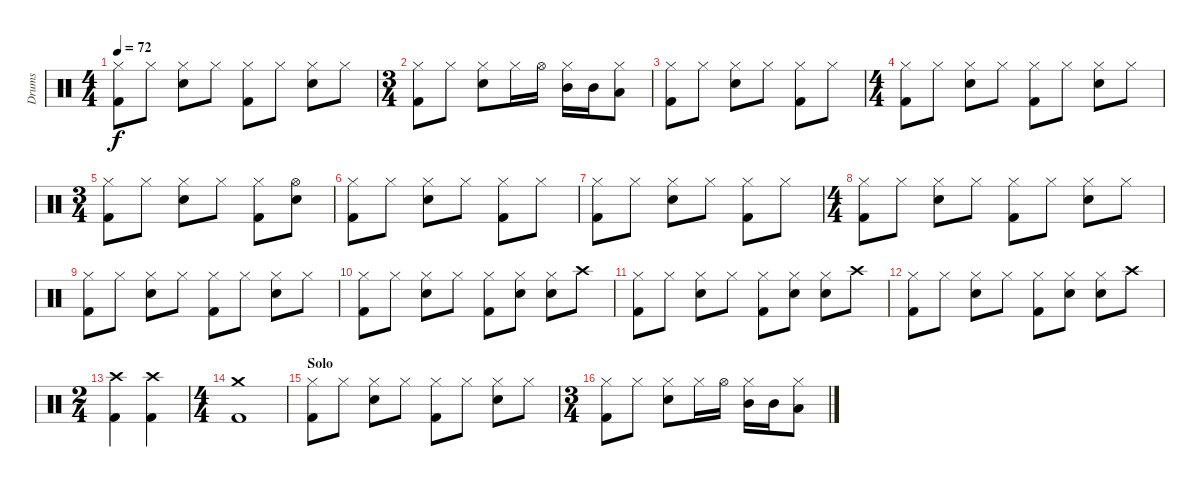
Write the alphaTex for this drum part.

\track ("Drums" "Drums") {instrument percussion}
\staff {score}
\articulation defaults
\ts (4 4)
\tempo 72
\clef neutral
\ks c
("Hi-Hat (closed)" "Kick (hit) 2").8{dy f} "Hi-Hat (closed)".8 ("Hi-Hat (closed)" "Electric Snare (hit)").8 "Hi-Hat (closed)".8 ("Hi-Hat (closed)" "Kick (hit) 2").8 "Hi-Hat (closed)".8 ("Hi-Hat (closed)" "Electric Snare (hit)").8 "Hi-Hat (closed)".8 |
\ts (3 4)
("Hi-Hat (closed)" "Kick (hit) 2").8 "Hi-Hat (closed)".8 ("Hi-Hat (closed)" "Electric Snare (hit)").8 "Hi-Hat (closed)".16 "Hi-Hat (open)".16 ("Hi-Hat (closed)" "Mid Tom (hit)").16 "Mid Tom (hit)".16 ("Hi-Hat (closed)" "Low Tom (hit)").8 |
("Hi-Hat (closed)" "Kick (hit) 2").8 "Hi-Hat (closed)".8 ("Hi-Hat (closed)" "Electric Snare (hit)").8 "Hi-Hat (closed)".8 ("Hi-Hat (closed)" "Kick (hit) 2").8 "Hi-Hat (closed)".8 |
\ts (4 4)
("Hi-Hat (closed)" "Kick (hit) 2").8 "Hi-Hat (closed)".8 ("Hi-Hat (closed)" "Electric Snare (hit)").8 "Hi-Hat (closed)".8 ("Hi-Hat (closed)" "Kick (hit) 2").8 "Hi-Hat (closed)".8 ("Hi-Hat (closed)" "Electric Snare (hit)").8 "Hi-Hat (closed)".8 |
\ts (3 4)
("Hi-Hat (closed)" "Kick (hit) 2").8 "Hi-Hat (closed)".8 ("Hi-Hat (closed)" "Electric Snare (hit)").8 "Hi-Hat (closed)".8 ("Hi-Hat (closed)" "Kick (hit) 2").8 ("Hi-Hat (open)" "Electric Snare (hit)").8 |
("Hi-Hat (closed)" "Kick (hit) 2").8 "Hi-Hat (closed)".8 ("Hi-Hat (closed)" "Electric Snare (hit)").8 "Hi-Hat (closed)".8 ("Hi-Hat (closed)" "Kick (hit) 2").8 "Hi-Hat (closed)".8 |
("Hi-Hat (closed)" "Kick (hit) 2").8 "Hi-Hat (closed)".8 ("Hi-Hat (closed)" "Electric Snare (hit)").8 "Hi-Hat (closed)".8 ("Hi-Hat (closed)" "Kick (hit) 2").8 "Hi-Hat (closed)".8 |
\ts (4 4)
("Hi-Hat (closed)" "Kick (hit) 2").8 "Hi-Hat (closed)".8 ("Hi-Hat (closed)" "Electric Snare (hit)").8 "Hi-Hat (closed)".8 ("Hi-Hat (closed)" "Kick (hit) 2").8 "Hi-Hat (closed)".8 ("Hi-Hat (closed)" "Electric Snare (hit)").8 "Hi-Hat (closed)".8 |
("Hi-Hat (closed)" "Kick (hit) 2").8 "Hi-Hat (closed)".8 ("Hi-Hat (closed)" "Electric Snare (hit)").8 "Hi-Hat (closed)".8 ("Hi-Hat (closed)" "Kick (hit) 2").8 "Hi-Hat (closed)".8 ("Hi-Hat (closed)" "Electric Snare (hit)").8 "Hi-Hat (closed)".8 |
("Hi-Hat (closed)" "Kick (hit) 2").8 "Hi-Hat (closed)".8 ("Hi-Hat (closed)" "Electric Snare (hit)").8 "Hi-Hat (closed)".8 ("Hi-Hat (closed)" "Kick (hit) 2").8 ("Hi-Hat (closed)" "Electric Snare (hit)").8 ("Hi-Hat (closed)" "Electric Snare (hit)").8 "Crash high (hit)".8 |
("Hi-Hat (closed)" "Kick (hit) 2").8 "Hi-Hat (closed)".8 ("Hi-Hat (closed)" "Electric Snare (hit)").8 "Hi-Hat (closed)".8 ("Hi-Hat (closed)" "Kick (hit) 2").8 ("Hi-Hat (closed)" "Electric Snare (hit)").8 ("Hi-Hat (closed)" "Electric Snare (hit)").8 "Crash high (hit)".8 |
("Hi-Hat (closed)" "Kick (hit) 2").8 "Hi-Hat (closed)".8 ("Hi-Hat (closed)" "Electric Snare (hit)").8 "Hi-Hat (closed)".8 ("Hi-Hat (closed)" "Kick (hit) 2").8 ("Hi-Hat (closed)" "Electric Snare (hit)").8 ("Hi-Hat (closed)" "Electric Snare (hit)").8 "Crash high (hit)".8 |
\ts (2 4)
("Crash high (hit)" "Kick (hit) 2").4 ("Crash high (hit)" "Kick (hit) 2").4 |
\ts (4 4)
("Crash medium (hit)" "Kick (hit) 2").1 |
\section ("" "Solo")
("Hi-Hat (closed)" "Kick (hit) 2").8 "Hi-Hat (closed)".8 ("Hi-Hat (closed)" "Electric Snare (hit)").8 "Hi-Hat (closed)".8 ("Hi-Hat (closed)" "Kick (hit) 2").8 "Hi-Hat (closed)".8 ("Hi-Hat (closed)" "Electric Snare (hit)").8 "Hi-Hat (closed)".8 |
\ts (3 4)
("Hi-Hat (closed)" "Kick (hit) 2").8 "Hi-Hat (closed)".8 ("Hi-Hat (closed)" "Electric Snare (hit)").8 "Hi-Hat (closed)".16 "Hi-Hat (open)".16 ("Hi-Hat (closed)" "Mid Tom (hit)").16 "Mid Tom (hit)".16 ("Hi-Hat (closed)" "Low Tom (hit)").8
